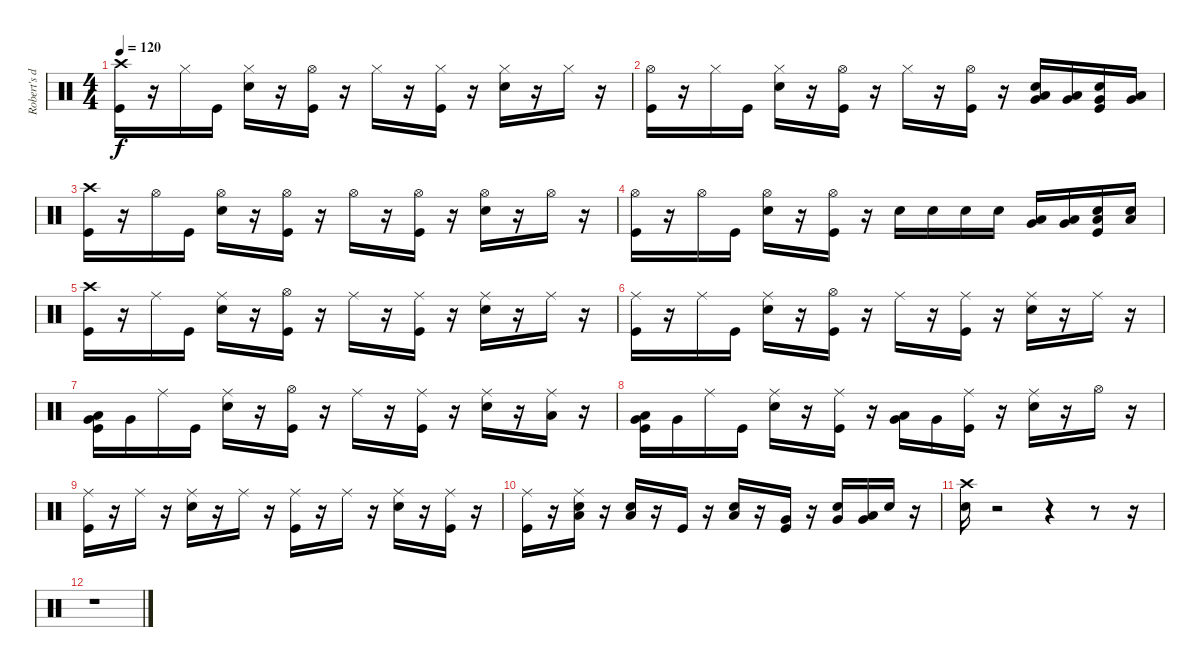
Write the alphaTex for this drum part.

\track ("Robert's drums" "Robert's d") {instrument percussion}
\staff {score}
\articulation defaults
\ts (4 4)
\tempo 120
\clef neutral
\ks c
("Crash high (hit)" "Kick (hit)").16{dy f} r.16 "Hi-Hat (closed)".16 "Kick (hit)".16 ("Electric Snare (hit)" "Hi-Hat (closed)").16 r.16 ("Hi-Hat (open)" "Kick (hit)").16 r.16 "Hi-Hat (closed)".16 r.16 ("Kick (hit)" "Hi-Hat (closed)").16 r.16 ("Electric Snare (hit)" "Hi-Hat (closed)").16 r.16 "Hi-Hat (closed)".16 r.16 |
("Hi-Hat (open)" "Kick (hit)").16 r.16 "Hi-Hat (closed)".16 "Kick (hit)".16 ("Hi-Hat (closed)" "Electric Snare (hit)").16 r.16 ("Kick (hit)" "Hi-Hat (open)").16 r.16 "Hi-Hat (closed)".16 r.16 ("Kick (hit)" "Hi-Hat (open)").16 r.16 ("Very Low Tom (hit)" "Low Tom (hit)" "Electric Snare (hit)").16 ("Low Floor Tom (hit)" "Very Low Tom (hit)").16 ("Very Low Tom (hit)" "Electric Snare (hit)" "Kick (hit)").16 ("Very Low Tom (hit)" "Low Floor Tom (hit)").16 |
("Crash high (hit)" "Kick (hit)").16 r.16 "Hi-Hat (open)".16 "Kick (hit)".16 ("Hi-Hat (open)" "Electric Snare (hit)").16 r.16 ("Hi-Hat (open)" "Kick (hit)").16 r.16 "Hi-Hat (open)".16 r.16 ("Hi-Hat (open)" "Kick (hit)").16 r.16 ("Hi-Hat (open)" "Electric Snare (hit)").16 r.16 "Hi-Hat (open)".16 r.16 |
("Kick (hit)" "Hi-Hat (open)").16 r.16 "Hi-Hat (open)".16 "Kick (hit)".16 ("Hi-Hat (open)" "Electric Snare (hit)").16 r.16 ("Hi-Hat (open)" "Kick (hit)").16 r.16 "Electric Snare (hit)".16 "Electric Snare (hit)".16 "Electric Snare (hit)".16 "Electric Snare (hit)".16 ("Low Tom (hit)" "Very Low Tom (hit)").16 ("Very Low Tom (hit)" "Low Floor Tom (hit)").16 ("Low Floor Tom (hit)" "Electric Snare (hit)" "Kick (hit)").16 ("Low Floor Tom (hit)" "Electric Snare (hit)").16 |
("Crash high (hit)" "Kick (hit)").16 r.16 "Ride (middle)".16 "Kick (hit)".16 ("Ride (middle)" "Electric Snare (hit)").16 r.16 ("Kick (hit)" "Hi-Hat (open)").16 r.16 "Ride (middle)".16 r.16 ("Kick (hit)" "Ride (middle)").16 r.16 ("Electric Snare (hit)" "Ride (middle)").16 r.16 "Ride (middle)".16 r.16 |
("Ride (middle)" "Kick (hit)").16 r.16 "Ride (middle)".16 "Kick (hit)".16 ("Ride (middle)" "Electric Snare (hit)").16 r.16 ("Kick (hit)" "Hi-Hat (open)").16 r.16 "Ride (middle)".16 r.16 ("Ride (middle)" "Kick (hit)").16 r.16 ("Electric Snare (hit)" "Ride (middle)").16 r.16 "Ride (middle)".16 r.16 |
("Very Low Tom (hit)" "Low Tom (hit)" "Kick (hit)").16 "Very Low Tom (hit)".16 "Ride (middle)".16 "Kick (hit)".16 ("Ride (middle)" "Electric Snare (hit)").16 r.16 ("Hi-Hat (open)" "Kick (hit)").16 r.16 "Ride (middle)".16 r.16 ("Ride (middle)" "Kick (hit)").16 r.16 ("Electric Snare (hit)" "Ride (middle)").16 r.16 ("Low Floor Tom (hit)" "Ride (middle)").16 r.16 |
("Very Low Tom (hit)" "Low Tom (hit)" "Kick (hit)").16 "Very Low Tom (hit)".16 "Ride (middle)".16 "Kick (hit)".16 ("Electric Snare (hit)" "Ride (middle)").16 r.16 ("Ride (middle)" "Kick (hit)").16 r.16 ("Very Low Tom (hit)" "Low Tom (hit)").16 "Very Low Tom (hit)".16 ("Kick (hit)" "Ride (middle)").16 r.16 ("Ride (middle)" "Electric Snare (hit)").16 r.16 "Hi-Hat (open)".16 r.16 |
("Ride (middle)" "Kick (hit)").16 r.16 "Ride (middle)".16 r.16 ("Ride (middle)" "Electric Snare (hit)").16 r.16 "Ride (middle)".16 r.16 ("Ride (middle)" "Kick (hit)").16 r.16 "Ride (middle)".16 r.16 ("Ride (middle)" "Electric Snare (hit)").16 r.16 ("Kick (hit)" "Ride (middle)").16 r.16 |
("Kick (hit)" "Ride (middle)").16 r.16 ("Electric Snare (hit)" "Ride (middle)" "Low Floor Tom (hit)").16 r.16 ("Electric Snare (hit)" "Low Floor Tom (hit)").16 r.16 "Kick (hit)".16 r.16 ("Electric Snare (hit)" "Low Floor Tom (hit)").16 r.16 ("Very Low Tom (hit)" "Kick (hit)").16 r.16 ("Electric Snare (hit)" "Very Low Tom (hit)").16 ("Very Low Tom (hit)" "Low Floor Tom (hit)").16 "Electric Snare (hit)".16 r.16 |
("Crash high (hit)" "Electric Snare (hit)").16 r.2 r.4 r.8 r.16 |
r.1
